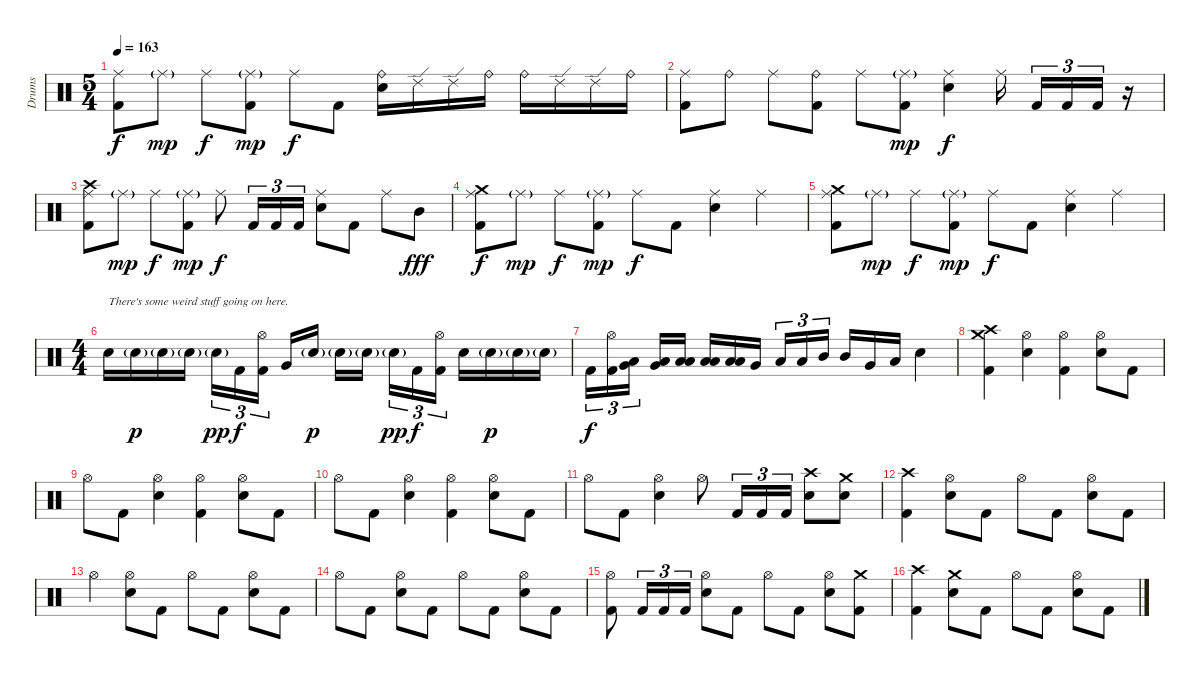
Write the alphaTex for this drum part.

\track ("Drums" "Drums") {instrument percussion}
\staff {score}
\articulation defaults
\ts (5 4)
\tempo 163
\clef neutral
\ks c
("Ride (middle)" "Kick (hit) 2").8{dy f} "Ride (middle)"{g}.8{dy mp} "Ride (middle)".8{dy f} ("Ride (middle)"{g} "Kick (hit) 2").8{dy mp} "Ride (middle)".8{dy f} "Kick (hit) 2".8 ("Ride (bell)" "Electric Snare (hit)").16 "Ride (edge) 2".16 "Ride (edge) 2".16 "Ride (bell)".16 "Ride (bell)".16 "Ride (edge) 2".16 "Ride (edge) 2".16 "Ride (bell)".16 |
("Ride (middle)" "Kick (hit) 2").8 "Ride (bell)".8 "Ride (middle)".8 ("Ride (bell)" "Kick (hit) 2").8 "Ride (middle)".8 ("Ride (middle)"{g} "Kick (hit) 2").8{dy mp} ("Ride (middle)" "Electric Snare (hit)").4{dy f} "Ride (middle)".16 "Kick (hit) 2".16{tu (3 2)} "Kick (hit) 2".16{tu (3 2)} "Kick (hit) 2".16{tu (3 2)} r.16 |
("Crash high (hit)" "Ride (middle)" "Kick (hit) 2").8 "Ride (middle)"{g}.8{dy mp} "Ride (middle)".8{dy f} ("Ride (middle)"{g} "Kick (hit) 2").8{dy mp} "Ride (middle)".8{dy f} "Kick (hit) 2".16{tu (3 2)} "Kick (hit) 2".16{tu (3 2)} "Kick (hit) 2".16{tu (3 2)} ("Ride (middle)" "Electric Snare (hit)").8 "Kick (hit) 2".8 "Ride (middle)".8 "Mid Tom (hit)".8{dy fff} |
("Crash medium (hit)" "Ride (middle)" "Kick (hit) 2").8{dy f} "Ride (middle)"{g}.8{dy mp} "Ride (middle)".8{dy f} ("Ride (middle)"{g} "Kick (hit) 2").8{dy mp} "Ride (middle)".8{dy f} "Kick (hit) 2".8 ("Ride (middle)" "Electric Snare (hit)").4 "Ride (middle)".4 |
("Crash medium (hit)" "Ride (middle)" "Kick (hit) 2").8 "Ride (middle)"{g}.8{dy mp} "Ride (middle)".8{dy f} ("Ride (middle)"{g} "Kick (hit) 2").8{dy mp} "Ride (middle)".8{dy f} "Kick (hit) 2".8 ("Ride (middle)" "Electric Snare (hit)").4 "Ride (middle)".4 |
\ts (4 4)
"Electric Snare (hit)".16{txt "There's some weird stuff going on here."} "Electric Snare (hit)"{g}.16{dy p} "Electric Snare (hit)"{g}.16 "Electric Snare (hit)"{g}.16 "Electric Snare (hit)"{g}.16{tu (3 2) dy pp} "Kick (hit) 2".16{tu (3 2) dy f} ("Hi-Hat (open)" "Kick (hit) 2").16{tu (3 2)} "Very Low Tom (hit)".16 "Electric Snare (hit)"{g}.16{dy p} "Electric Snare (hit)"{g}.16 "Electric Snare (hit)"{g}.16 "Electric Snare (hit)"{g}.16{tu (3 2) dy pp} "Kick (hit) 2".16{tu (3 2) dy f} ("Hi-Hat (open)" "Kick (hit) 2").16{tu (3 2)} "Electric Snare (hit)".16 "Electric Snare (hit)"{g}.16{dy p} "Electric Snare (hit)"{g}.16 "Electric Snare (hit)"{g}.16 |
"Kick (hit) 2".16{tu (3 2) dy f} ("Hi-Hat (open)" "Kick (hit) 2").16{tu (3 2)} ("Very Low Tom (hit)" "Low Floor Tom (hit)").16{tu (3 2)} ("Very Low Tom (hit)" "Low Floor Tom (hit)").16 ("Low Tom (hit)" "Low Floor Tom (hit)").16 ("Low Tom (hit)" "Low Floor Tom (hit)").16 ("Low Tom (hit)" "Low Floor Tom (hit)").16 "Very Low Tom (hit)".16 "Low Tom (hit)".16{tu (3 2)} "Low Tom (hit)".16{tu (3 2)} "Mid Tom (hit)".16{tu (3 2)} "Mid Tom (hit)".16 "Very Low Tom (hit)".16 "Low Tom (hit)".16 "Electric Snare (hit)".4 |
("Crash medium (hit)" "Crash high (hit)" "Kick (hit) 2").4 ("Hi-Hat (open)" "Electric Snare (hit)").4 ("Hi-Hat (open)" "Kick (hit) 2").4 ("Hi-Hat (open)" "Electric Snare (hit)").8 "Kick (hit) 2".8 |
"Hi-Hat (open)".8 "Kick (hit) 2".8 ("Hi-Hat (open)" "Electric Snare (hit)").4 ("Hi-Hat (open)" "Kick (hit) 2").4 ("Hi-Hat (open)" "Electric Snare (hit)").8 "Kick (hit) 2".8 |
"Hi-Hat (open)".8 "Kick (hit) 2".8 ("Hi-Hat (open)" "Electric Snare (hit)").4 ("Hi-Hat (open)" "Kick (hit) 2").4 ("Hi-Hat (open)" "Electric Snare (hit)").8 "Kick (hit) 2".8 |
"Hi-Hat (open)".8 "Kick (hit) 2".8 ("Hi-Hat (open)" "Electric Snare (hit)").4 "Hi-Hat (open)".8 "Kick (hit) 2".16{tu (3 2)} "Kick (hit) 2".16{tu (3 2)} "Kick (hit) 2".16{tu (3 2)} ("Crash high (hit)" "Electric Snare (hit)").8 ("Crash medium (hit)" "Electric Snare (hit)").8 |
("Crash high (hit)" "Kick (hit) 2").4 ("Hi-Hat (open)" "Electric Snare (hit)").8 "Kick (hit) 2".8 "Hi-Hat (open)".8 "Kick (hit) 2".8 ("Hi-Hat (open)" "Electric Snare (hit)").8 "Kick (hit) 2".8 |
"Hi-Hat (open)".4 ("Hi-Hat (open)" "Electric Snare (hit)").8 "Kick (hit) 2".8 "Hi-Hat (open)".8 "Kick (hit) 2".8 ("Hi-Hat (open)" "Electric Snare (hit)").8 "Kick (hit) 2".8 |
"Hi-Hat (open)".8 "Kick (hit) 2".8 ("Hi-Hat (open)" "Electric Snare (hit)").8 "Kick (hit) 2".8 "Hi-Hat (open)".8 "Kick (hit) 2".8 ("Hi-Hat (open)" "Electric Snare (hit)").8 "Kick (hit) 2".8 |
("Hi-Hat (open)" "Kick (hit) 2").8 "Kick (hit) 2".16{tu (3 2)} "Kick (hit) 2".16{tu (3 2)} "Kick (hit) 2".16{tu (3 2)} ("Hi-Hat (open)" "Electric Snare (hit)").8 "Kick (hit) 2".8 "Hi-Hat (open)".8 "Kick (hit) 2".8 ("Hi-Hat (open)" "Electric Snare (hit)").8 ("Crash medium (hit)" "Kick (hit) 2").8 |
("Crash high (hit)" "Kick (hit) 2").4 ("Crash medium (hit)" "Electric Snare (hit)").8 "Kick (hit) 2".8 "Hi-Hat (open)".8 "Kick (hit) 2".8 ("Hi-Hat (open)" "Electric Snare (hit)").8 "Kick (hit) 2".8
